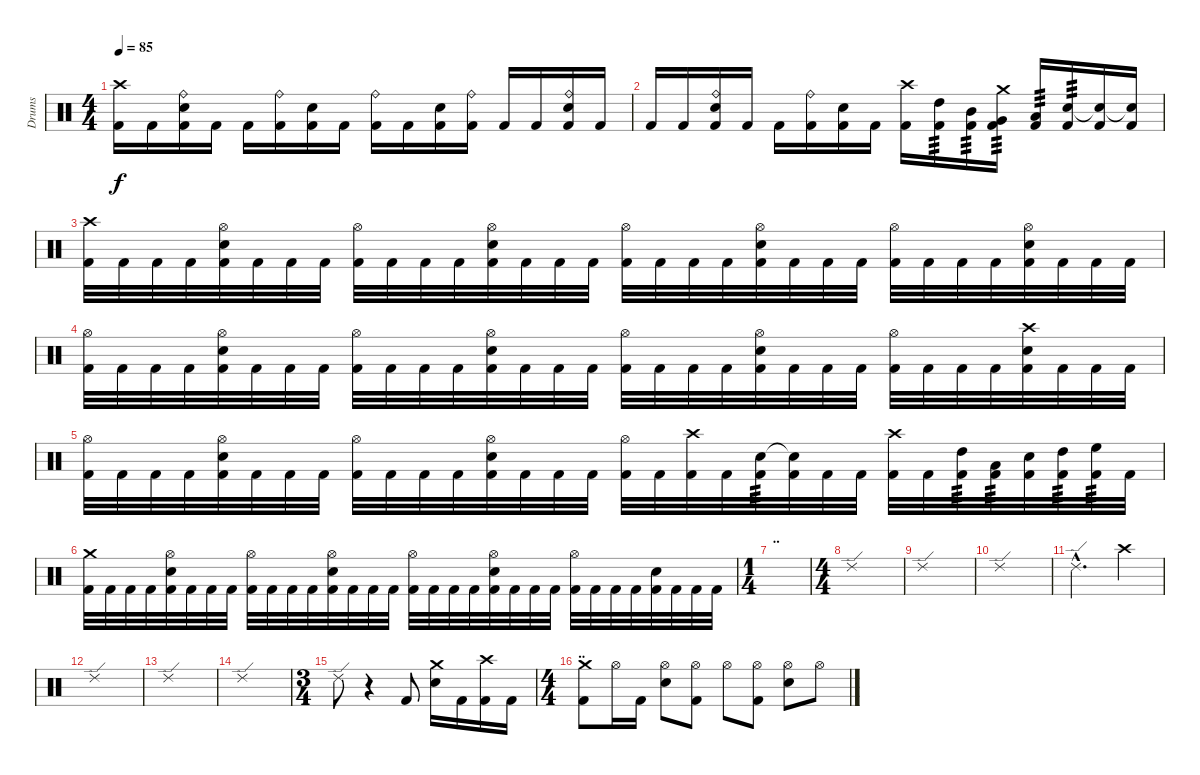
\track ("Drums" "Drums") {instrument percussion}
\staff {score}
\articulation defaults
\ts (4 4)
\tempo 85
\clef neutral
\ks c
("Crash high (hit)" "Kick (hit) 2").16{dy f} "Kick (hit) 2".16 ("Ride (bell)" "Snare (hit) 2" "Kick (hit) 2").16 "Kick (hit) 2".16 "Kick (hit) 2".16 ("Ride (bell)" "Kick (hit) 2").16 ("Snare (hit) 2" "Kick (hit) 2").16 "Kick (hit) 2".16 ("Ride (bell)" "Kick (hit) 2").16 "Kick (hit) 2".16 ("Snare (hit) 2" "Kick (hit) 2").16 ("Ride (bell)" "Kick (hit) 2").16 "Kick (hit) 2".16 "Kick (hit) 2".16 ("Ride (bell)" "Snare (hit) 2" "Kick (hit) 2").16 "Kick (hit) 2".16 |
"Kick (hit) 2".16 "Kick (hit) 2".16 ("Ride (bell)" "Snare (hit) 2" "Kick (hit) 2").16 "Kick (hit) 2".16 "Kick (hit) 2".16 ("Ride (bell)" "Kick (hit) 2").16 ("Snare (hit) 2" "Kick (hit) 2").16 "Kick (hit) 2".16 ("Crash high (hit)" "Kick (hit) 2").16 ("High Tom (hit)" "Kick (hit) 2").16{tp 3} ("Mid Tom (hit)" "Kick (hit) 2").16{tp 3} ("Crash medium (hit)" "Very Low Tom (hit)" "Kick (hit) 2").16{tp 3} ("Low Floor Tom (hit)" "Kick (hit) 2").16{tp 3} ("Snare (hit) 2" "Kick (hit) 2").16{tp 3} ("Snare (hit) 2"{t} "Kick (hit) 2").16 ("Snare (hit)"{t} "Kick (hit) 2").16 |
("Crash high (hit)" "Kick (hit) 2").32 "Kick (hit) 2".32 "Kick (hit) 2".32 "Kick (hit) 2".32 ("Hi-Hat (open)" "Snare (hit) 2" "Kick (hit) 2").32 "Kick (hit) 2".32 "Kick (hit) 2".32 "Kick (hit) 2".32 ("Hi-Hat (open)" "Kick (hit) 2").32 "Kick (hit) 2".32 "Kick (hit) 2".32 "Kick (hit) 2".32 ("Hi-Hat (open)" "Snare (hit) 2" "Kick (hit) 2").32 "Kick (hit) 2".32 "Kick (hit) 2".32 "Kick (hit) 2".32 ("Hi-Hat (open)" "Kick (hit) 2").32 "Kick (hit) 2".32 "Kick (hit) 2".32 "Kick (hit) 2".32 ("Hi-Hat (open)" "Snare (hit) 2" "Kick (hit) 2").32 "Kick (hit) 2".32 "Kick (hit) 2".32 "Kick (hit) 2".32 ("Hi-Hat (open)" "Kick (hit) 2").32 "Kick (hit) 2".32 "Kick (hit) 2".32 "Kick (hit) 2".32 ("Hi-Hat (open)" "Snare (hit) 2" "Kick (hit) 2").32 "Kick (hit) 2".32 "Kick (hit) 2".32 "Kick (hit) 2".32 |
("Hi-Hat (open)" "Kick (hit) 2").32 "Kick (hit) 2".32 "Kick (hit) 2".32 "Kick (hit) 2".32 ("Hi-Hat (open)" "Snare (hit) 2" "Kick (hit) 2").32 "Kick (hit) 2".32 "Kick (hit) 2".32 "Kick (hit) 2".32 ("Hi-Hat (open)" "Kick (hit) 2").32 "Kick (hit) 2".32 "Kick (hit) 2".32 "Kick (hit) 2".32 ("Hi-Hat (open)" "Snare (hit) 2" "Kick (hit) 2").32 "Kick (hit) 2".32 "Kick (hit) 2".32 "Kick (hit) 2".32 ("Hi-Hat (open)" "Kick (hit) 2").32 "Kick (hit) 2".32 "Kick (hit) 2".32 "Kick (hit) 2".32 ("Hi-Hat (open)" "Snare (hit) 2" "Kick (hit) 2").32 "Kick (hit) 2".32 "Kick (hit) 2".32 "Kick (hit) 2".32 ("Hi-Hat (open)" "Kick (hit) 2").32 "Kick (hit) 2".32 "Kick (hit) 2".32 "Kick (hit) 2".32 ("Crash high (hit)" "Snare (hit) 2" "Kick (hit) 2").32 "Kick (hit) 2".32 "Kick (hit) 2".32 "Kick (hit) 2".32 |
("Hi-Hat (open)" "Kick (hit) 2").32 "Kick (hit) 2".32 "Kick (hit) 2".32 "Kick (hit) 2".32 ("Hi-Hat (open)" "Snare (hit) 2" "Kick (hit) 2").32 "Kick (hit) 2".32 "Kick (hit) 2".32 "Kick (hit) 2".32 ("Hi-Hat (open)" "Kick (hit) 2").32 "Kick (hit) 2".32 "Kick (hit) 2".32 "Kick (hit) 2".32 ("Hi-Hat (open)" "Snare (hit) 2" "Kick (hit) 2").32 "Kick (hit) 2".32 "Kick (hit) 2".32 "Kick (hit) 2".32 ("Hi-Hat (open)" "Kick (hit) 2").32 "Kick (hit) 2".32 ("Crash high (hit)" "Kick (hit) 2").32 "Kick (hit) 2".32 ("Snare (hit) 2" "Kick (hit) 2").32{tp 3} ("Snare (hit)"{t} "Kick (hit) 2").32 "Kick (hit) 2".32 "Kick (hit) 2".32 ("Crash high (hit)" "Kick (hit) 2").32 "Kick (hit) 2".32 ("High Tom (hit)" "Kick (hit) 2").32{tp 3} ("Low Tom (hit)" "Kick (hit) 2").32{tp 3} ("Snare (hit) 2" "Kick (hit) 2").32 ("High Tom (hit)" "Kick (hit) 2").32{tp 3} ("High Floor Tom (hit)" "Kick (hit) 2").32{tp 3} "Kick (hit) 2".32 |
("Crash medium (hit)" "Kick (hit) 2").32 "Kick (hit) 2".32 "Kick (hit) 2".32 "Kick (hit) 2".32 ("Hi-Hat (open)" "Snare (hit) 2" "Kick (hit) 2").32 "Kick (hit) 2".32 "Kick (hit) 2".32 "Kick (hit) 2".32 ("Hi-Hat (open)" "Kick (hit) 2").32 "Kick (hit) 2".32 "Kick (hit) 2".32 "Kick (hit) 2".32 ("Hi-Hat (open)" "Snare (hit) 2" "Kick (hit) 2").32 "Kick (hit) 2".32 "Kick (hit) 2".32 "Kick (hit) 2".32 ("Hi-Hat (open)" "Kick (hit) 2").32 "Kick (hit) 2".32 "Kick (hit) 2".32 "Kick (hit) 2".32 ("Hi-Hat (open)" "Snare (hit) 2" "Kick (hit) 2").32 "Kick (hit) 2".32 "Kick (hit) 2".32 "Kick (hit) 2".32 ("Hi-Hat (open)" "Kick (hit) 2").32 "Kick (hit) 2".32 "Kick (hit) 2".32 "Kick (hit) 2".32 ("Snare (hit) 2" "Kick (hit) 2").32 "Kick (hit) 2".32 "Kick (hit) 2".32 "Kick (hit) 2".32 |
\ts (1 4)
\section ("" "..")
|
\ts (4 4)
"Ride (edge) 2".1 |
"Ride (edge) 2".1 |
"Ride (edge) 2".1 |
"Ride (edge) 2"{hac}.2{d} "Crash high (hit)".4 |
"Ride (edge) 2".1 |
"Ride (edge) 2".1 |
"Ride (edge) 2".1 |
\ts (3 4)
"Ride (edge) 2".8 r.4 "Kick (hit) 2".8 ("Crash medium (hit)" "Snare (hit) 2").16 "Kick (hit) 2".16 ("Crash high (hit)" "Kick (hit) 2").16 "Kick (hit) 2".16 |
\ts (4 4)
\section ("" "..")
("Crash medium (hit)" "Kick (hit) 2").8 "Hi-Hat (open)".16 "Kick (hit) 2".16 ("Hi-Hat (open)" "Snare (hit) 2").8 ("Hi-Hat (open)" "Kick (hit) 2").8 "Hi-Hat (open)".8 ("Hi-Hat (open)" "Kick (hit) 2").8 ("Hi-Hat (open)" "Snare (hit) 2").8 "Hi-Hat (open)".8
